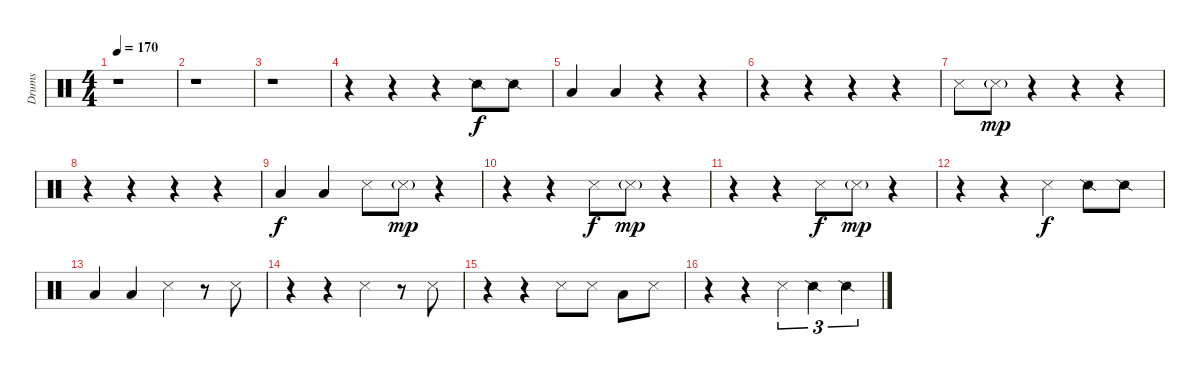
\track ("Drums" "Drums") {instrument percussion}
\staff {score}
\articulation defaults
\ts (4 4)
\tempo 170
\clef neutral
\ks c
r.1{dy f} |
r.1 |
r.1 |
r.4 r.4 r.4 "Snare (side stick) 2".8 "Snare (side stick) 2".8 |
"Low Floor Tom (hit)".4 "Low Floor Tom (hit)".4 r.4 r.4 |
r.4 r.4 r.4 r.4 |
"Snare (side stick) 3".8 "Snare (side stick) 3"{g}.8{dy mp} r.4 r.4 r.4 |
r.4 r.4 r.4 r.4 |
"Low Floor Tom (hit)".4{dy f} "Low Floor Tom (hit)".4 "Snare (side stick) 3".8 "Snare (side stick) 3"{g}.8{dy mp} r.4 |
r.4 r.4 "Snare (side stick) 3".8{dy f} "Snare (side stick) 3"{g}.8{dy mp} r.4 |
r.4 r.4 "Snare (side stick) 3".8{dy f} "Snare (side stick) 3"{g}.8{dy mp} r.4 |
r.4 r.4 "Snare (side stick) 3".4{dy f} "Snare (side stick) 2".8 "Snare (side stick) 2".8 |
"Low Floor Tom (hit)".4 "Low Floor Tom (hit)".4 "Snare (side stick) 3".4 r.8 "Snare (side stick) 3".8 |
r.4 r.4 "Snare (side stick) 3".4 r.8 "Snare (side stick) 3".8 |
r.4 r.4 "Snare (side stick) 3".8 "Snare (side stick) 3".8 "Low Floor Tom (hit)".8 "Snare (side stick) 3".8 |
r.4 r.4 "Snare (side stick) 3".4{tu (3 2)} "Snare (side stick) 2".4{tu (3 2)} "Snare (side stick) 2".4{tu (3 2)}
